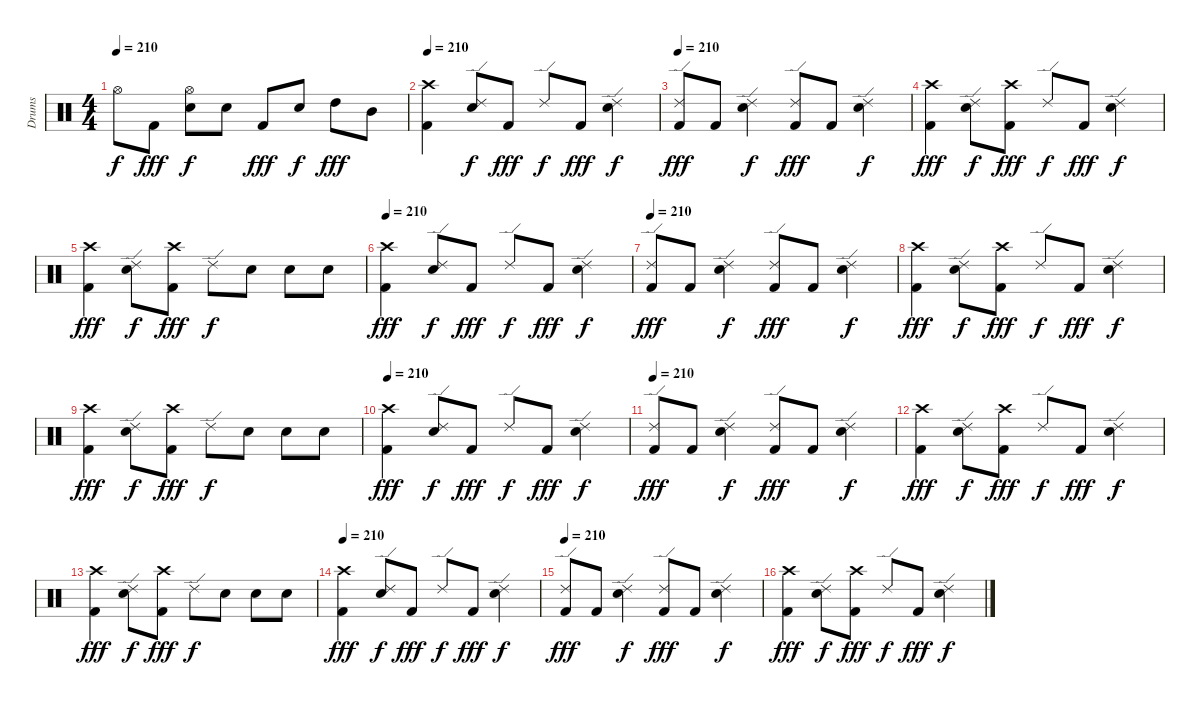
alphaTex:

\track ("Drums" "Drums") {instrument percussion}
\staff {score}
\articulation defaults
\ts (4 4)
\tempo 210
\clef neutral
\ks c "Hi-Hat (open)".8{dy f} "Kick (hit) 2".8{dy fff}
("Hi-Hat (open)" "Snare (hit) 2").8{dy f} "Snare (hit) 2".8 "Kick (hit) 2".8{dy fff} "Snare (hit) 2".8{dy f} "High Tom (hit)".8{dy fff} "Mid Tom (hit)".8 |
\section ("" "")
\tempo 210
("Crash high (hit)" "Kick (hit) 2").4 ("Ride (edge) 2" "Snare (hit) 2").8{dy f} "Kick (hit) 2".8{dy fff} "Ride (edge) 2".8{dy f} "Kick (hit) 2".8{dy fff} ("Ride (edge) 2" "Snare (hit) 2").4{dy f} |
\tempo 210
("Ride (edge) 2" "Kick (hit) 2").8{dy fff} "Kick (hit) 2".8 ("Ride (edge) 2" "Snare (hit) 2").4{dy f} ("Ride (edge) 2" "Kick (hit) 2").8{dy fff} "Kick (hit) 2".8 ("Ride (edge) 2" "Snare (hit) 2").4{dy f} |
("Crash high (hit)" "Kick (hit) 2").4{dy fff} ("Ride (edge) 2" "Snare (hit) 2").8{dy f} ("Crash high (hit)" "Kick (hit) 2").8{dy fff} "Ride (edge) 2".8{dy f} "Kick (hit) 2".8{dy fff} ("Ride (edge) 2" "Snare (hit) 2").4{dy f} |
("Crash high (hit)" "Kick (hit) 2").4{dy fff} ("Ride (edge) 2" "Snare (hit) 2").8{dy f} ("Crash high (hit)" "Kick (hit) 2").8{dy fff} "Ride (edge) 2".8{dy f} "Snare (hit) 2".8 "Snare (hit) 2".8 "Snare (hit) 2".8 |
\tempo 210
("Crash high (hit)" "Kick (hit) 2").4{dy fff} ("Ride (edge) 2" "Snare (hit) 2").8{dy f} "Kick (hit) 2".8{dy fff} "Ride (edge) 2".8{dy f} "Kick (hit) 2".8{dy fff} ("Ride (edge) 2" "Snare (hit) 2").4{dy f} |
\tempo 210
("Ride (edge) 2" "Kick (hit) 2").8{dy fff} "Kick (hit) 2".8 ("Ride (edge) 2" "Snare (hit) 2").4{dy f} ("Ride (edge) 2" "Kick (hit) 2").8{dy fff} "Kick (hit) 2".8 ("Ride (edge) 2" "Snare (hit) 2").4{dy f} |
("Crash high (hit)" "Kick (hit) 2").4{dy fff} ("Ride (edge) 2" "Snare (hit) 2").8{dy f} ("Crash high (hit)" "Kick (hit) 2").8{dy fff} "Ride (edge) 2".8{dy f} "Kick (hit) 2".8{dy fff} ("Ride (edge) 2" "Snare (hit) 2").4{dy f} |
("Crash high (hit)" "Kick (hit) 2").4{dy fff} ("Ride (edge) 2" "Snare (hit) 2").8{dy f} ("Crash high (hit)" "Kick (hit) 2").8{dy fff} "Ride (edge) 2".8{dy f} "Snare (hit) 2".8 "Snare (hit) 2".8 "Snare (hit) 2".8 |
\tempo 210
("Crash high (hit)" "Kick (hit) 2").4{dy fff} ("Ride (edge) 2" "Snare (hit) 2").8{dy f} "Kick (hit) 2".8{dy fff} "Ride (edge) 2".8{dy f} "Kick (hit) 2".8{dy fff} ("Ride (edge) 2" "Snare (hit) 2").4{dy f} |
\tempo 210
("Ride (edge) 2" "Kick (hit) 2").8{dy fff} "Kick (hit) 2".8 ("Ride (edge) 2" "Snare (hit) 2").4{dy f} ("Ride (edge) 2" "Kick (hit) 2").8{dy fff} "Kick (hit) 2".8 ("Ride (edge) 2" "Snare (hit) 2").4{dy f} |
("Crash high (hit)" "Kick (hit) 2").4{dy fff} ("Ride (edge) 2" "Snare (hit) 2").8{dy f} ("Crash high (hit)" "Kick (hit) 2").8{dy fff} "Ride (edge) 2".8{dy f} "Kick (hit) 2".8{dy fff} ("Ride (edge) 2" "Snare (hit) 2").4{dy f} |
("Crash high (hit)" "Kick (hit) 2").4{dy fff} ("Ride (edge) 2" "Snare (hit) 2").8{dy f} ("Crash high (hit)" "Kick (hit) 2").8{dy fff} "Ride (edge) 2".8{dy f} "Snare (hit) 2".8 "Snare (hit) 2".8 "Snare (hit) 2".8 |
\tempo 210
("Crash high (hit)" "Kick (hit) 2").4{dy fff} ("Ride (edge) 2" "Snare (hit) 2").8{dy f} "Kick (hit) 2".8{dy fff} "Ride (edge) 2".8{dy f} "Kick (hit) 2".8{dy fff} ("Ride (edge) 2" "Snare (hit) 2").4{dy f} |
\tempo 210
("Ride (edge) 2" "Kick (hit) 2").8{dy fff} "Kick (hit) 2".8 ("Ride (edge) 2" "Snare (hit) 2").4{dy f} ("Ride (edge) 2" "Kick (hit) 2").8{dy fff} "Kick (hit) 2".8 ("Ride (edge) 2" "Snare (hit) 2").4{dy f} |
("Crash high (hit)" "Kick (hit) 2").4{dy fff} ("Ride (edge) 2" "Snare (hit) 2").8{dy f} ("Crash high (hit)" "Kick (hit) 2").8{dy fff} "Ride (edge) 2".8{dy f} "Kick (hit) 2".8{dy fff} ("Ride (edge) 2" "Snare (hit) 2").4{dy f}
